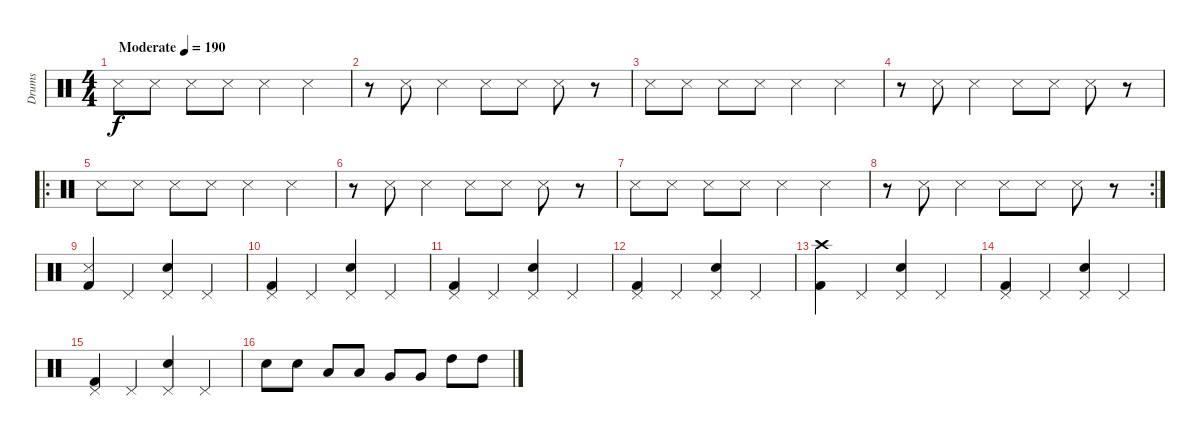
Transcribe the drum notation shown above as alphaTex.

\track ("Drums" "Drums") {instrument percussion}
\staff {score}
\articulation defaults
\ts (4 4)
\tempo (190 "Moderate")
\clef neutral
\ks c "Snare (side stick) 3".8{dy f} "Snare (side stick) 3".8 "Snare (side stick) 3".8 "Snare (side stick) 3".8 "Snare (side stick) 3".4 "Snare (side stick) 3".4
|
r.8 "Snare (side stick) 3".8 "Snare (side stick) 3".4 "Snare (side stick) 3".8 "Snare (side stick) 3".8 "Snare (side stick) 3".8 r.8 |
"Snare (side stick) 3".8 "Snare (side stick) 3".8 "Snare (side stick) 3".8 "Snare (side stick) 3".8 "Snare (side stick) 3".4 "Snare (side stick) 3".4 |
r.8 "Snare (side stick) 3".8 "Snare (side stick) 3".4 "Snare (side stick) 3".8 "Snare (side stick) 3".8 "Snare (side stick) 3".8 r.8 |
\ro "Snare (side stick) 3".8 "Snare (side stick) 3".8 "Snare (side stick) 3".8 "Snare (side stick) 3".8 "Snare (side stick) 3".4 "Snare (side stick) 3".4
|
r.8 "Snare (side stick) 3".8 "Snare (side stick) 3".4 "Snare (side stick) 3".8 "Snare (side stick) 3".8 "Snare (side stick) 3".8 r.8 |
"Snare (side stick) 3".8 "Snare (side stick) 3".8 "Snare (side stick) 3".8 "Snare (side stick) 3".8 "Snare (side stick) 3".4 "Snare (side stick) 3".4 |
\rc 2
r.8 "Snare (side stick) 3".8 "Snare (side stick) 3".4 "Snare (side stick) 3".8 "Snare (side stick) 3".8 "Snare (side stick) 3".8 r.8 |
("Snare (side stick) 3" "Kick (hit) 2").4 "Pedal Hi-Hat (hit)".4 ("Pedal Hi-Hat (hit)" "Electric Snare (hit)").4 "Pedal Hi-Hat (hit)".4 |
("Pedal Hi-Hat (hit)" "Kick (hit) 2").4 "Pedal Hi-Hat (hit)".4 ("Pedal Hi-Hat (hit)" "Electric Snare (hit)").4 "Pedal Hi-Hat (hit)".4 |
("Pedal Hi-Hat (hit)" "Kick (hit) 2").4 "Pedal Hi-Hat (hit)".4 ("Pedal Hi-Hat (hit)" "Electric Snare (hit)").4 "Pedal Hi-Hat (hit)".4 |
("Pedal Hi-Hat (hit)" "Kick (hit) 2").4 "Pedal Hi-Hat (hit)".4 ("Pedal Hi-Hat (hit)" "Electric Snare (hit)").4 "Pedal Hi-Hat (hit)".4 |
("Crash high (hit)" "Kick (hit) 2").4 "Pedal Hi-Hat (hit)".4 ("Pedal Hi-Hat (hit)" "Electric Snare (hit)").4 "Pedal Hi-Hat (hit)".4 |
("Pedal Hi-Hat (hit)" "Kick (hit) 2").4 "Pedal Hi-Hat (hit)".4 ("Pedal Hi-Hat (hit)" "Electric Snare (hit)").4 "Pedal Hi-Hat (hit)".4 |
("Pedal Hi-Hat (hit)" "Kick (hit) 2").4 "Pedal Hi-Hat (hit)".4 ("Pedal Hi-Hat (hit)" "Electric Snare (hit)").4 "Pedal Hi-Hat (hit)".4 |
"Electric Snare (hit)".8 "Electric Snare (hit)".8 "Low Tom (hit)".8 "Low Tom (hit)".8 "Very Low Tom (hit)".8 "Very Low Tom (hit)".8 "High Tom (hit)".8 "High Tom (hit)".8
